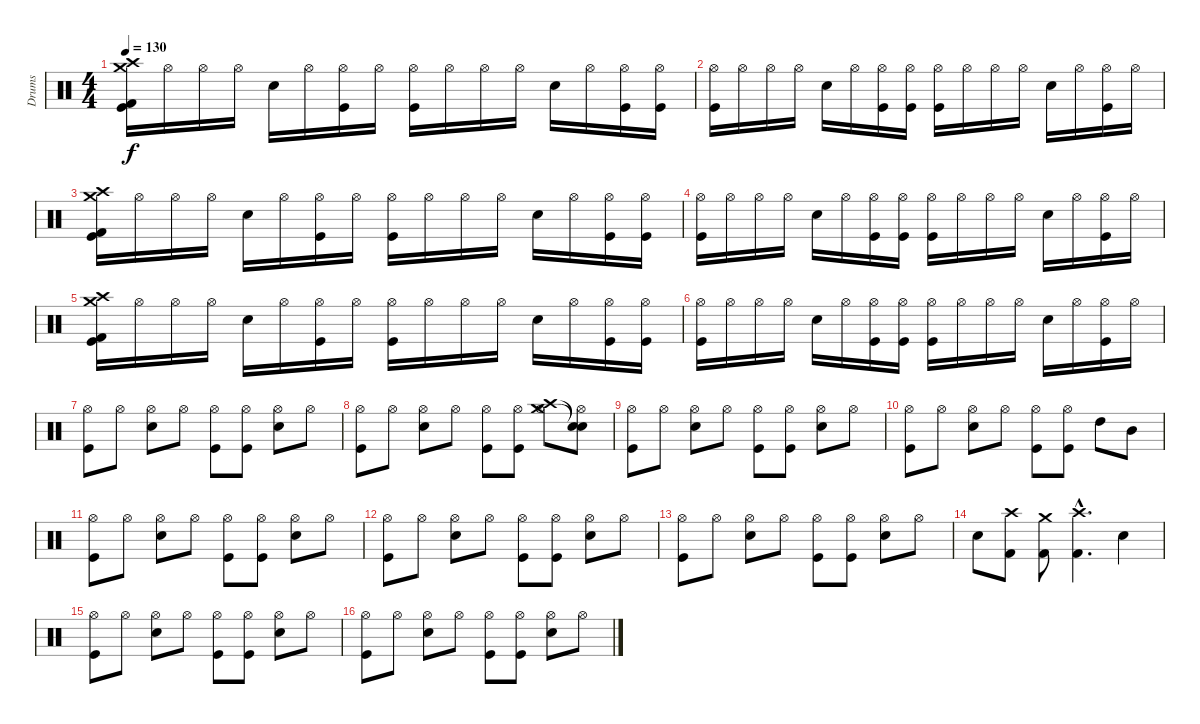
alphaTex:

\track ("Drums" "Drums") {instrument percussion}
\staff {score}
\articulation defaults
\ts (4 4)
\tempo 130
\clef neutral
\ks c
("Crash medium (hit)" "Crash high (hit)" "Kick (hit) 2" "Kick (hit)").16{dy f} "Hi-Hat (open)".16 "Hi-Hat (open)".16 "Hi-Hat (open)".16 "Electric Snare (hit)".16 "Hi-Hat (open)".16 ("Hi-Hat (open)" "Kick (hit)").16 "Hi-Hat (open)".16 ("Hi-Hat (open)" "Kick (hit)").16 "Hi-Hat (open)".16 "Hi-Hat (open)".16 "Hi-Hat (open)".16 "Electric Snare (hit)".16 "Hi-Hat (open)".16 ("Hi-Hat (open)" "Kick (hit)").16 ("Hi-Hat (open)" "Kick (hit)").16 |
("Hi-Hat (open)" "Kick (hit)").16 "Hi-Hat (open)".16 "Hi-Hat (open)".16 "Hi-Hat (open)".16 "Electric Snare (hit)".16 "Hi-Hat (open)".16 ("Hi-Hat (open)" "Kick (hit)").16 ("Hi-Hat (open)" "Kick (hit)").16 ("Hi-Hat (open)" "Kick (hit)").16 "Hi-Hat (open)".16 "Hi-Hat (open)".16 "Hi-Hat (open)".16 "Electric Snare (hit)".16 "Hi-Hat (open)".16 ("Hi-Hat (open)" "Kick (hit)").16 "Hi-Hat (open)".16 |
("Crash medium (hit)" "Crash high (hit)" "Kick (hit) 2" "Kick (hit)").16 "Hi-Hat (open)".16 "Hi-Hat (open)".16 "Hi-Hat (open)".16 "Electric Snare (hit)".16 "Hi-Hat (open)".16 ("Hi-Hat (open)" "Kick (hit)").16 "Hi-Hat (open)".16 ("Hi-Hat (open)" "Kick (hit)").16 "Hi-Hat (open)".16 "Hi-Hat (open)".16 "Hi-Hat (open)".16 "Electric Snare (hit)".16 "Hi-Hat (open)".16 ("Hi-Hat (open)" "Kick (hit)").16 ("Hi-Hat (open)" "Kick (hit)").16 |
("Hi-Hat (open)" "Kick (hit)").16 "Hi-Hat (open)".16 "Hi-Hat (open)".16 "Hi-Hat (open)".16 "Electric Snare (hit)".16 "Hi-Hat (open)".16 ("Hi-Hat (open)" "Kick (hit)").16 ("Hi-Hat (open)" "Kick (hit)").16 ("Hi-Hat (open)" "Kick (hit)").16 "Hi-Hat (open)".16 "Hi-Hat (open)".16 "Hi-Hat (open)".16 "Electric Snare (hit)".16 "Hi-Hat (open)".16 ("Hi-Hat (open)" "Kick (hit)").16 "Hi-Hat (open)".16 |
("Crash medium (hit)" "Crash high (hit)" "Kick (hit) 2" "Kick (hit)").16 "Hi-Hat (open)".16 "Hi-Hat (open)".16 "Hi-Hat (open)".16 "Electric Snare (hit)".16 "Hi-Hat (open)".16 ("Hi-Hat (open)" "Kick (hit)").16 "Hi-Hat (open)".16 ("Hi-Hat (open)" "Kick (hit)").16 "Hi-Hat (open)".16 "Hi-Hat (open)".16 "Hi-Hat (open)".16 "Electric Snare (hit)".16 "Hi-Hat (open)".16 ("Hi-Hat (open)" "Kick (hit)").16 ("Hi-Hat (open)" "Kick (hit)").16 |
("Hi-Hat (open)" "Kick (hit)").16 "Hi-Hat (open)".16 "Hi-Hat (open)".16 "Hi-Hat (open)".16 "Electric Snare (hit)".16 "Hi-Hat (open)".16 ("Hi-Hat (open)" "Kick (hit)").16 ("Hi-Hat (open)" "Kick (hit)").16 ("Hi-Hat (open)" "Kick (hit)").16 "Hi-Hat (open)".16 "Hi-Hat (open)".16 "Hi-Hat (open)".16 "Electric Snare (hit)".16 "Hi-Hat (open)".16 ("Hi-Hat (open)" "Kick (hit)").16 "Hi-Hat (open)".16 |
("Kick (hit)" "Hi-Hat (open)").8 "Hi-Hat (open)".8 ("Electric Snare (hit)" "Hi-Hat (open)").8 "Hi-Hat (open)".8 ("Kick (hit)" "Hi-Hat (open)").8 ("Kick (hit)" "Hi-Hat (open)").8 ("Electric Snare (hit)" "Hi-Hat (open)").8 "Hi-Hat (open)".8 |
("Kick (hit)" "Hi-Hat (open)").8 "Hi-Hat (open)".8 ("Electric Snare (hit)" "Hi-Hat (open)").8 "Hi-Hat (open)".8 ("Kick (hit)" "Hi-Hat (open)").8 ("Kick (hit)" "Hi-Hat (open)").8 ("Crash medium (hit)" "Crash high (hit)" "Hi-Hat (open)").8 ("Snare (hit)"{t} "Snare (hit)"{t} "Hi-Hat (open)").8 |
("Kick (hit)" "Hi-Hat (open)").8 "Hi-Hat (open)".8 ("Electric Snare (hit)" "Hi-Hat (open)").8 "Hi-Hat (open)".8 ("Kick (hit)" "Hi-Hat (open)").8 ("Kick (hit)" "Hi-Hat (open)").8 ("Electric Snare (hit)" "Hi-Hat (open)").8 "Hi-Hat (open)".8 |
("Kick (hit)" "Hi-Hat (open)").8 "Hi-Hat (open)".8 ("Electric Snare (hit)" "Hi-Hat (open)").8 "Hi-Hat (open)".8 ("Kick (hit)" "Hi-Hat (open)").8 ("Kick (hit)" "Hi-Hat (open)").8 "High Tom (hit)".8 "Mid Tom (hit)".8 |
("Kick (hit)" "Hi-Hat (open)").8 "Hi-Hat (open)".8 ("Electric Snare (hit)" "Hi-Hat (open)").8 "Hi-Hat (open)".8 ("Kick (hit)" "Hi-Hat (open)").8 ("Kick (hit)" "Hi-Hat (open)").8 ("Electric Snare (hit)" "Hi-Hat (open)").8 "Hi-Hat (open)".8 |
("Kick (hit)" "Hi-Hat (open)").8 "Hi-Hat (open)".8 ("Electric Snare (hit)" "Hi-Hat (open)").8 "Hi-Hat (open)".8 ("Kick (hit)" "Hi-Hat (open)").8 ("Kick (hit)" "Hi-Hat (open)").8 ("Electric Snare (hit)" "Hi-Hat (open)").8 "Hi-Hat (open)".8 |
("Kick (hit)" "Hi-Hat (open)").8 "Hi-Hat (open)".8 ("Electric Snare (hit)" "Hi-Hat (open)").8 "Hi-Hat (open)".8 ("Kick (hit)" "Hi-Hat (open)").8 ("Kick (hit)" "Hi-Hat (open)").8 ("Electric Snare (hit)" "Hi-Hat (open)").8 "Hi-Hat (open)".8 |
"Electric Snare (hit)".8 ("Kick (hit) 2" "Crash high (hit)").8 ("Kick (hit) 2" "Crash medium (hit)").8 ("Kick (hit) 2"{hac} "Crash high (hit)"{hac}).4{d} "Electric Snare (hit)".4 |
("Kick (hit)" "Hi-Hat (open)").8 "Hi-Hat (open)".8 ("Electric Snare (hit)" "Hi-Hat (open)").8 "Hi-Hat (open)".8 ("Kick (hit)" "Hi-Hat (open)").8 ("Kick (hit)" "Hi-Hat (open)").8 ("Electric Snare (hit)" "Hi-Hat (open)").8 "Hi-Hat (open)".8 |
("Kick (hit)" "Hi-Hat (open)").8 "Hi-Hat (open)".8 ("Electric Snare (hit)" "Hi-Hat (open)").8 "Hi-Hat (open)".8 ("Kick (hit)" "Hi-Hat (open)").8 ("Kick (hit)" "Hi-Hat (open)").8 ("Electric Snare (hit)" "Hi-Hat (open)").8 "Hi-Hat (open)".8
